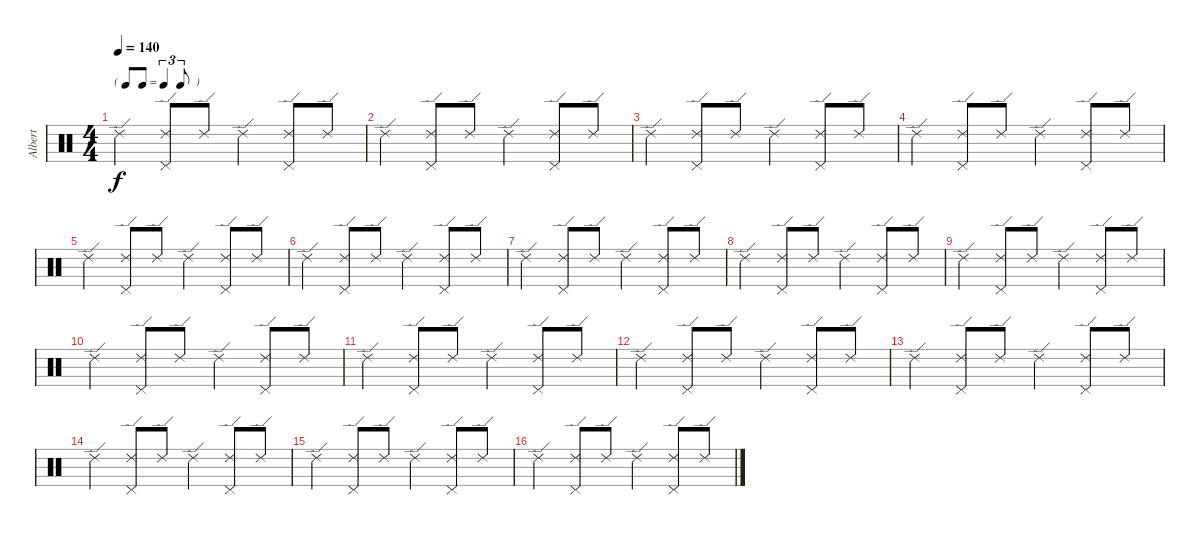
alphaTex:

\track ("Albert" "Albert") {instrument percussion}
\staff {score}
\articulation defaults
\ts (4 4)
\tf triplet8th
\tempo 140
\clef neutral
\ks c "Ride (edge) 2".4{dy f}
("Ride (edge) 2" "Pedal Hi-Hat (hit)").8 "Ride (edge) 2".8 "Ride (edge) 2".4 ("Ride (edge) 2" "Pedal Hi-Hat (hit)").8 "Ride (edge) 2".8 |
"Ride (edge) 2".4 ("Ride (edge) 2" "Pedal Hi-Hat (hit)").8 "Ride (edge) 2".8 "Ride (edge) 2".4 ("Ride (edge) 2" "Pedal Hi-Hat (hit)").8 "Ride (edge) 2".8 |
"Ride (edge) 2".4 ("Ride (edge) 2" "Pedal Hi-Hat (hit)").8 "Ride (edge) 2".8 "Ride (edge) 2".4 ("Ride (edge) 2" "Pedal Hi-Hat (hit)").8 "Ride (edge) 2".8 |
"Ride (edge) 2".4 ("Ride (edge) 2" "Pedal Hi-Hat (hit)").8 "Ride (edge) 2".8 "Ride (edge) 2".4 ("Ride (edge) 2" "Pedal Hi-Hat (hit)").8 "Ride (edge) 2".8 |
"Ride (edge) 2".4 ("Ride (edge) 2" "Pedal Hi-Hat (hit)").8 "Ride (edge) 2".8 "Ride (edge) 2".4 ("Ride (edge) 2" "Pedal Hi-Hat (hit)").8 "Ride (edge) 2".8 |
"Ride (edge) 2".4 ("Ride (edge) 2" "Pedal Hi-Hat (hit)").8 "Ride (edge) 2".8 "Ride (edge) 2".4 ("Ride (edge) 2" "Pedal Hi-Hat (hit)").8 "Ride (edge) 2".8 |
"Ride (edge) 2".4 ("Ride (edge) 2" "Pedal Hi-Hat (hit)").8 "Ride (edge) 2".8 "Ride (edge) 2".4 ("Ride (edge) 2" "Pedal Hi-Hat (hit)").8 "Ride (edge) 2".8 |
"Ride (edge) 2".4 ("Ride (edge) 2" "Pedal Hi-Hat (hit)").8 "Ride (edge) 2".8 "Ride (edge) 2".4 ("Ride (edge) 2" "Pedal Hi-Hat (hit)").8 "Ride (edge) 2".8 |
"Ride (edge) 2".4 ("Ride (edge) 2" "Pedal Hi-Hat (hit)").8 "Ride (edge) 2".8 "Ride (edge) 2".4 ("Ride (edge) 2" "Pedal Hi-Hat (hit)").8 "Ride (edge) 2".8 |
"Ride (edge) 2".4 ("Ride (edge) 2" "Pedal Hi-Hat (hit)").8 "Ride (edge) 2".8 "Ride (edge) 2".4 ("Ride (edge) 2" "Pedal Hi-Hat (hit)").8 "Ride (edge) 2".8 |
"Ride (edge) 2".4 ("Ride (edge) 2" "Pedal Hi-Hat (hit)").8 "Ride (edge) 2".8 "Ride (edge) 2".4 ("Ride (edge) 2" "Pedal Hi-Hat (hit)").8 "Ride (edge) 2".8 |
"Ride (edge) 2".4 ("Ride (edge) 2" "Pedal Hi-Hat (hit)").8 "Ride (edge) 2".8 "Ride (edge) 2".4 ("Ride (edge) 2" "Pedal Hi-Hat (hit)").8 "Ride (edge) 2".8 |
"Ride (edge) 2".4 ("Ride (edge) 2" "Pedal Hi-Hat (hit)").8 "Ride (edge) 2".8 "Ride (edge) 2".4 ("Ride (edge) 2" "Pedal Hi-Hat (hit)").8 "Ride (edge) 2".8 |
"Ride (edge) 2".4 ("Ride (edge) 2" "Pedal Hi-Hat (hit)").8 "Ride (edge) 2".8 "Ride (edge) 2".4 ("Ride (edge) 2" "Pedal Hi-Hat (hit)").8 "Ride (edge) 2".8 |
"Ride (edge) 2".4 ("Ride (edge) 2" "Pedal Hi-Hat (hit)").8 "Ride (edge) 2".8 "Ride (edge) 2".4 ("Ride (edge) 2" "Pedal Hi-Hat (hit)").8 "Ride (edge) 2".8 |
"Ride (edge) 2".4 ("Ride (edge) 2" "Pedal Hi-Hat (hit)").8 "Ride (edge) 2".8 "Ride (edge) 2".4 ("Ride (edge) 2" "Pedal Hi-Hat (hit)").8 "Ride (edge) 2".8
